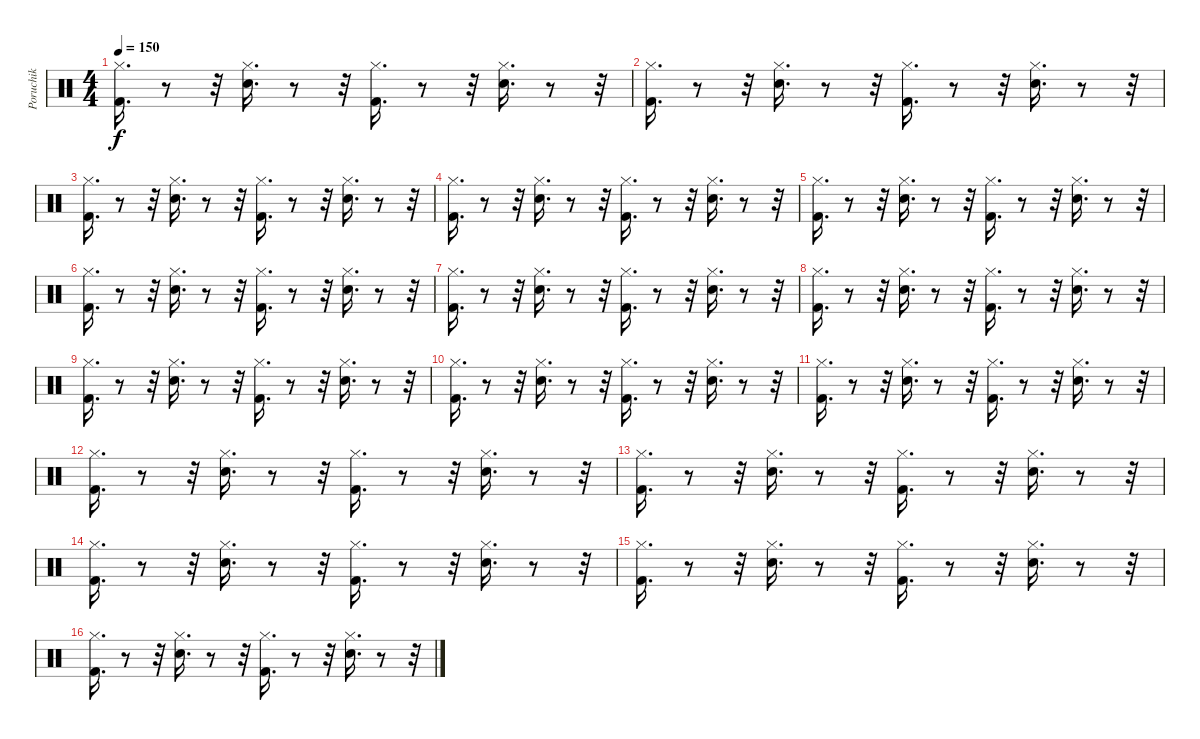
\track ("Poruchik" "Poruchik") {instrument percussion}
\staff {score}
\articulation defaults
\ts (4 4)
\tempo 150
\clef neutral
\ks c
("Kick (hit) 2" "Hi-Hat (closed)").16{d dy f} r.8 r.32 ("Snare (hit) 2" "Hi-Hat (closed)").16{d} r.8 r.32 ("Kick (hit) 2" "Hi-Hat (closed)").16{d} r.8 r.32 ("Snare (hit) 2" "Hi-Hat (closed)").16{d} r.8 r.32 |
("Kick (hit) 2" "Hi-Hat (closed)").16{d} r.8 r.32 ("Snare (hit) 2" "Hi-Hat (closed)").16{d} r.8 r.32 ("Kick (hit) 2" "Hi-Hat (closed)").16{d} r.8 r.32 ("Snare (hit) 2" "Hi-Hat (closed)").16{d} r.8 r.32 |
("Kick (hit) 2" "Hi-Hat (closed)").16{d} r.8 r.32 ("Snare (hit) 2" "Hi-Hat (closed)").16{d} r.8 r.32 ("Kick (hit) 2" "Hi-Hat (closed)").16{d} r.8 r.32 ("Snare (hit) 2" "Hi-Hat (closed)").16{d} r.8 r.32 |
("Kick (hit) 2" "Hi-Hat (closed)").16{d} r.8 r.32 ("Snare (hit) 2" "Hi-Hat (closed)").16{d} r.8 r.32 ("Kick (hit) 2" "Hi-Hat (closed)").16{d} r.8 r.32 ("Snare (hit) 2" "Hi-Hat (closed)").16{d} r.8 r.32 |
("Kick (hit) 2" "Hi-Hat (closed)").16{d} r.8 r.32 ("Snare (hit) 2" "Hi-Hat (closed)").16{d} r.8 r.32 ("Kick (hit) 2" "Hi-Hat (closed)").16{d} r.8 r.32 ("Snare (hit) 2" "Hi-Hat (closed)").16{d} r.8 r.32 |
("Kick (hit) 2" "Hi-Hat (closed)").16{d} r.8 r.32 ("Snare (hit) 2" "Hi-Hat (closed)").16{d} r.8 r.32 ("Kick (hit) 2" "Hi-Hat (closed)").16{d} r.8 r.32 ("Snare (hit) 2" "Hi-Hat (closed)").16{d} r.8 r.32 |
("Kick (hit) 2" "Hi-Hat (closed)").16{d} r.8 r.32 ("Snare (hit) 2" "Hi-Hat (closed)").16{d} r.8 r.32 ("Kick (hit) 2" "Hi-Hat (closed)").16{d} r.8 r.32 ("Snare (hit) 2" "Hi-Hat (closed)").16{d} r.8 r.32 |
("Kick (hit) 2" "Hi-Hat (closed)").16{d} r.8 r.32 ("Snare (hit) 2" "Hi-Hat (closed)").16{d} r.8 r.32 ("Kick (hit) 2" "Hi-Hat (closed)").16{d} r.8 r.32 ("Snare (hit) 2" "Hi-Hat (closed)").16{d} r.8 r.32 |
("Kick (hit) 2" "Hi-Hat (closed)").16{d} r.8 r.32 ("Snare (hit) 2" "Hi-Hat (closed)").16{d} r.8 r.32 ("Kick (hit) 2" "Hi-Hat (closed)").16{d} r.8 r.32 ("Snare (hit) 2" "Hi-Hat (closed)").16{d} r.8 r.32 |
("Kick (hit) 2" "Hi-Hat (closed)").16{d} r.8 r.32 ("Snare (hit) 2" "Hi-Hat (closed)").16{d} r.8 r.32 ("Kick (hit) 2" "Hi-Hat (closed)").16{d} r.8 r.32 ("Snare (hit) 2" "Hi-Hat (closed)").16{d} r.8 r.32 |
("Kick (hit) 2" "Hi-Hat (closed)").16{d} r.8 r.32 ("Snare (hit) 2" "Hi-Hat (closed)").16{d} r.8 r.32 ("Kick (hit) 2" "Hi-Hat (closed)").16{d} r.8 r.32 ("Snare (hit) 2" "Hi-Hat (closed)").16{d} r.8 r.32 |
("Kick (hit) 2" "Hi-Hat (closed)").16{d} r.8 r.32 ("Snare (hit) 2" "Hi-Hat (closed)").16{d} r.8 r.32 ("Kick (hit) 2" "Hi-Hat (closed)").16{d} r.8 r.32 ("Snare (hit) 2" "Hi-Hat (closed)").16{d} r.8 r.32 |
("Kick (hit) 2" "Hi-Hat (closed)").16{d} r.8 r.32 ("Snare (hit) 2" "Hi-Hat (closed)").16{d} r.8 r.32 ("Kick (hit) 2" "Hi-Hat (closed)").16{d} r.8 r.32 ("Snare (hit) 2" "Hi-Hat (closed)").16{d} r.8 r.32 |
("Kick (hit) 2" "Hi-Hat (closed)").16{d} r.8 r.32 ("Snare (hit) 2" "Hi-Hat (closed)").16{d} r.8 r.32 ("Kick (hit) 2" "Hi-Hat (closed)").16{d} r.8 r.32 ("Snare (hit) 2" "Hi-Hat (closed)").16{d} r.8 r.32 |
("Kick (hit) 2" "Hi-Hat (closed)").16{d} r.8 r.32 ("Snare (hit) 2" "Hi-Hat (closed)").16{d} r.8 r.32 ("Kick (hit) 2" "Hi-Hat (closed)").16{d} r.8 r.32 ("Snare (hit) 2" "Hi-Hat (closed)").16{d} r.8 r.32 |
("Kick (hit) 2" "Hi-Hat (closed)").16{d} r.8 r.32 ("Snare (hit) 2" "Hi-Hat (closed)").16{d} r.8 r.32 ("Kick (hit) 2" "Hi-Hat (closed)").16{d} r.8 r.32 ("Snare (hit) 2" "Hi-Hat (closed)").16{d} r.8 r.32
